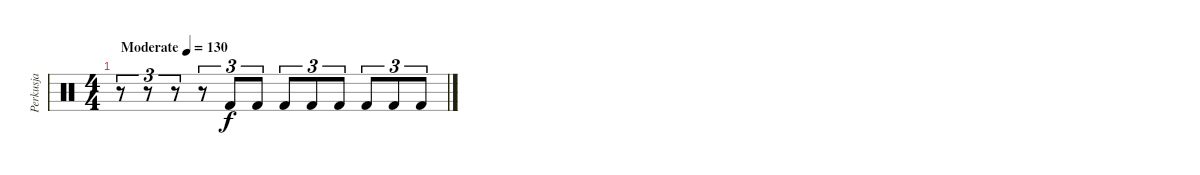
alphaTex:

\track ("Perkusja" "Perkusja") {instrument percussion}
\staff {score}
\articulation defaults
\ts (4 4)
\tempo (130 "Moderate")
\clef neutral
\ks c
r.8{tu (3 2) dy f} r.8{tu (3 2)} r.8{tu (3 2)} r.8{tu (3 2)} "Kick (hit) 2".8{tu (3 2)} "Kick (hit) 2".8{tu (3 2)} "Kick (hit) 2".8{tu (3 2)} "Kick (hit) 2".8{tu (3 2)} "Kick (hit) 2".8{tu (3 2)} "Kick (hit) 2".8{tu (3 2)} "Kick (hit) 2".8{tu (3 2)} "Kick (hit) 2".8{tu (3 2)}
